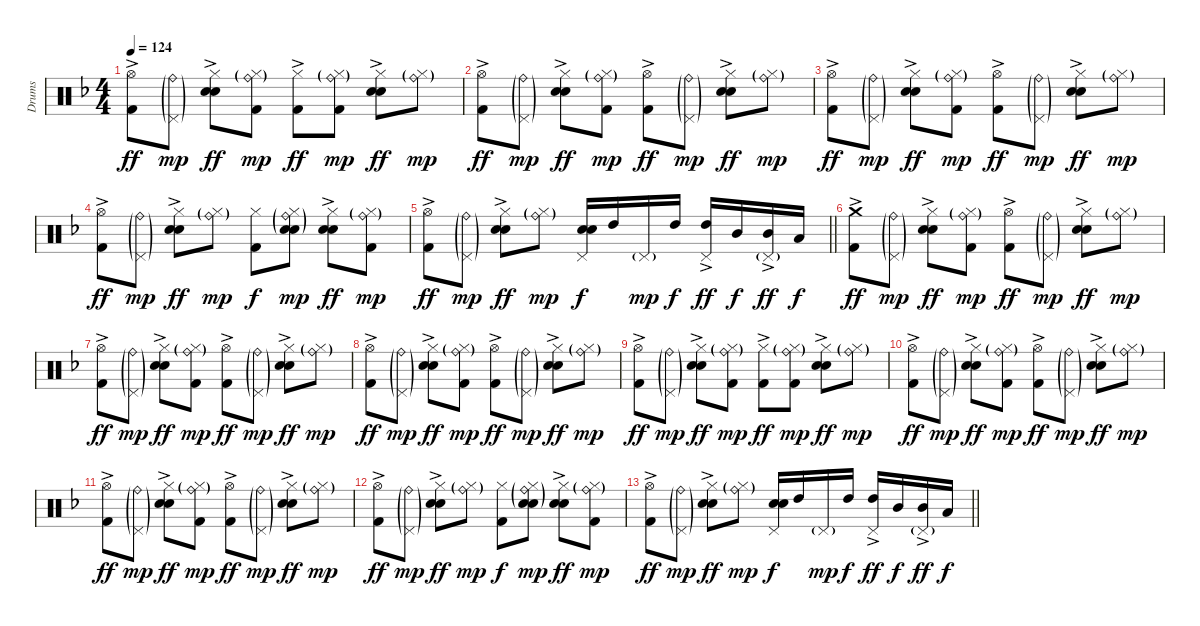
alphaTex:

\track ("Drums" "Drums") {instrument percussion}
\staff {score}
\articulation defaults
\ts (4 4)
\tempo 124
\clef neutral
\ks f
("Hi-Hat (open)" "Kick (hit) 2"{ac}).8{dy ff} ("Ride (bell)"{g} "Pedal Hi-Hat (hit)"{g}).8{dy mp} ("Hi-Hat (closed)" "Electric Snare (hit)"{ac} "Snare (hit) 2").8{dy ff} ("Hi-Hat (closed)"{g} "Ride (bell)"{g} "Kick (hit) 2").8{dy mp} ("Hi-Hat (closed)" "Kick (hit) 2"{ac}).8{dy ff} ("Hi-Hat (closed)"{g} "Ride (bell)"{g} "Kick (hit) 2").8{dy mp} ("Hi-Hat (closed)" "Electric Snare (hit)"{ac} "Snare (hit) 2").8{dy ff} ("Hi-Hat (closed)"{g} "Ride (bell)"{g}).8{dy mp} |
("Hi-Hat (open)" "Kick (hit) 2"{ac}).8{dy ff} ("Ride (bell)"{g} "Pedal Hi-Hat (hit)"{g}).8{dy mp} ("Hi-Hat (closed)" "Electric Snare (hit)"{ac} "Snare (hit) 2").8{dy ff} ("Hi-Hat (closed)"{g} "Ride (bell)"{g} "Kick (hit) 2").8{dy mp} ("Hi-Hat (open)" "Kick (hit) 2"{ac}).8{dy ff} ("Ride (bell)"{g} "Pedal Hi-Hat (hit)"{g}).8{dy mp} ("Hi-Hat (closed)" "Electric Snare (hit)"{ac} "Snare (hit) 2").8{dy ff} ("Hi-Hat (closed)"{g} "Ride (bell)"{g}).8{dy mp} |
("Hi-Hat (open)" "Kick (hit) 2"{ac}).8{dy ff} ("Ride (bell)"{g} "Pedal Hi-Hat (hit)"{g}).8{dy mp} ("Hi-Hat (closed)" "Electric Snare (hit)"{ac} "Snare (hit) 2").8{dy ff} ("Hi-Hat (closed)"{g} "Ride (bell)"{g} "Kick (hit) 2").8{dy mp} ("Hi-Hat (open)" "Kick (hit) 2"{ac}).8{dy ff} ("Ride (bell)"{g} "Pedal Hi-Hat (hit)"{g}).8{dy mp} ("Hi-Hat (closed)" "Electric Snare (hit)"{ac} "Snare (hit) 2").8{dy ff} ("Hi-Hat (closed)"{g} "Ride (bell)"{g}).8{dy mp} |
("Hi-Hat (open)" "Kick (hit) 2"{ac}).8{dy ff} ("Ride (bell)"{g} "Pedal Hi-Hat (hit)"{g}).8{dy mp} ("Hi-Hat (closed)" "Electric Snare (hit)"{ac} "Snare (hit) 2").8{dy ff} ("Hi-Hat (closed)"{g} "Ride (bell)"{g}).8{dy mp} ("Hi-Hat (closed)" "Kick (hit) 2").8{dy f} ("Hi-Hat (closed)"{g} "Ride (bell)"{g} "Electric Snare (hit)"{g} "Snare (hit) 2").8{dy mp} ("Hi-Hat (closed)" "Electric Snare (hit)"{ac} "Snare (hit) 2").8{dy ff} ("Hi-Hat (closed)"{g} "Ride (bell)"{g} "Kick (hit) 2").8{dy mp} |
\barLineRight lightlight
("Hi-Hat (open)" "Kick (hit) 2"{ac}).8{dy ff} ("Ride (bell)"{g} "Pedal Hi-Hat (hit)"{g}).8{dy mp} ("Hi-Hat (closed)" "Electric Snare (hit)"{ac} "Snare (hit) 2").8{dy ff} ("Hi-Hat (closed)"{g} "Ride (bell)"{g}).8{dy mp} ("Pedal Hi-Hat (hit)" "Electric Snare (hit)" "Snare (hit) 2").16{dy f} "High Tom (hit)".16 "Pedal Hi-Hat (hit)"{g}.16{dy mp} "High Tom (hit)".16{dy f} ("Pedal Hi-Hat (hit)" "High Tom (hit)"{ac}).16{dy ff} "Mid Tom (hit)".16{dy f} ("Pedal Hi-Hat (hit)"{g} "Mid Tom (hit)"{ac}).16{dy ff} "Low Tom (hit)".16{dy f} |
("Crash medium (hit)" "Kick (hit) 2"{ac}).8{dy ff} ("Ride (bell)"{g} "Pedal Hi-Hat (hit)"{g}).8{dy mp} ("Hi-Hat (closed)" "Electric Snare (hit)"{ac} "Snare (hit) 2").8{dy ff} ("Hi-Hat (closed)"{g} "Ride (bell)"{g} "Kick (hit) 2").8{dy mp} ("Hi-Hat (open)" "Kick (hit) 2"{ac}).8{dy ff} ("Ride (bell)"{g} "Pedal Hi-Hat (hit)"{g}).8{dy mp} ("Hi-Hat (closed)" "Electric Snare (hit)"{ac} "Snare (hit) 2").8{dy ff} ("Hi-Hat (closed)"{g} "Ride (bell)"{g}).8{dy mp} |
("Hi-Hat (open)" "Kick (hit) 2"{ac}).8{dy ff} ("Ride (bell)"{g} "Pedal Hi-Hat (hit)"{g}).8{dy mp} ("Hi-Hat (closed)" "Electric Snare (hit)"{ac} "Snare (hit) 2").8{dy ff} ("Hi-Hat (closed)"{g} "Ride (bell)"{g} "Kick (hit) 2").8{dy mp} ("Hi-Hat (open)" "Kick (hit) 2"{ac}).8{dy ff} ("Ride (bell)"{g} "Pedal Hi-Hat (hit)"{g}).8{dy mp} ("Hi-Hat (closed)" "Electric Snare (hit)"{ac} "Snare (hit) 2").8{dy ff} ("Hi-Hat (closed)"{g} "Ride (bell)"{g}).8{dy mp} |
("Hi-Hat (open)" "Kick (hit) 2"{ac}).8{dy ff} ("Ride (bell)"{g} "Pedal Hi-Hat (hit)"{g}).8{dy mp} ("Hi-Hat (closed)" "Electric Snare (hit)"{ac} "Snare (hit) 2").8{dy ff} ("Hi-Hat (closed)"{g} "Ride (bell)"{g} "Kick (hit) 2").8{dy mp} ("Hi-Hat (open)" "Kick (hit) 2"{ac}).8{dy ff} ("Ride (bell)"{g} "Pedal Hi-Hat (hit)"{g}).8{dy mp} ("Hi-Hat (closed)" "Electric Snare (hit)"{ac} "Snare (hit) 2").8{dy ff} ("Hi-Hat (closed)"{g} "Ride (bell)"{g}).8{dy mp} |
("Hi-Hat (open)" "Kick (hit) 2"{ac}).8{dy ff} ("Ride (bell)"{g} "Pedal Hi-Hat (hit)"{g}).8{dy mp} ("Hi-Hat (closed)" "Electric Snare (hit)"{ac} "Snare (hit) 2").8{dy ff} ("Hi-Hat (closed)"{g} "Ride (bell)"{g} "Kick (hit) 2").8{dy mp} ("Hi-Hat (closed)" "Kick (hit) 2"{ac}).8{dy ff} ("Hi-Hat (closed)"{g} "Ride (bell)"{g} "Kick (hit) 2").8{dy mp} ("Hi-Hat (closed)" "Electric Snare (hit)"{ac} "Snare (hit) 2").8{dy ff} ("Hi-Hat (closed)"{g} "Ride (bell)"{g}).8{dy mp} |
("Hi-Hat (open)" "Kick (hit) 2"{ac}).8{dy ff} ("Ride (bell)"{g} "Pedal Hi-Hat (hit)"{g}).8{dy mp} ("Hi-Hat (closed)" "Electric Snare (hit)"{ac} "Snare (hit) 2").8{dy ff} ("Hi-Hat (closed)"{g} "Ride (bell)"{g} "Kick (hit) 2").8{dy mp} ("Hi-Hat (open)" "Kick (hit) 2"{ac}).8{dy ff} ("Ride (bell)"{g} "Pedal Hi-Hat (hit)"{g}).8{dy mp} ("Hi-Hat (closed)" "Electric Snare (hit)"{ac} "Snare (hit) 2").8{dy ff} ("Hi-Hat (closed)"{g} "Ride (bell)"{g}).8{dy mp} |
("Hi-Hat (open)" "Kick (hit) 2"{ac}).8{dy ff} ("Ride (bell)"{g} "Pedal Hi-Hat (hit)"{g}).8{dy mp} ("Hi-Hat (closed)" "Electric Snare (hit)"{ac} "Snare (hit) 2").8{dy ff} ("Hi-Hat (closed)"{g} "Ride (bell)"{g} "Kick (hit) 2").8{dy mp} ("Hi-Hat (open)" "Kick (hit) 2"{ac}).8{dy ff} ("Ride (bell)"{g} "Pedal Hi-Hat (hit)"{g}).8{dy mp} ("Hi-Hat (closed)" "Electric Snare (hit)"{ac} "Snare (hit) 2").8{dy ff} ("Hi-Hat (closed)"{g} "Ride (bell)"{g}).8{dy mp} |
("Hi-Hat (open)" "Kick (hit) 2"{ac}).8{dy ff} ("Ride (bell)"{g} "Pedal Hi-Hat (hit)"{g}).8{dy mp} ("Hi-Hat (closed)" "Electric Snare (hit)"{ac} "Snare (hit) 2").8{dy ff} ("Hi-Hat (closed)"{g} "Ride (bell)"{g}).8{dy mp} ("Hi-Hat (closed)" "Kick (hit) 2").8{dy f} ("Hi-Hat (closed)"{g} "Ride (bell)"{g} "Electric Snare (hit)"{g} "Snare (hit) 2").8{dy mp} ("Hi-Hat (closed)" "Electric Snare (hit)"{ac} "Snare (hit) 2").8{dy ff} ("Hi-Hat (closed)"{g} "Ride (bell)"{g} "Kick (hit) 2").8{dy mp} |
\barLineRight lightlight
("Hi-Hat (open)" "Kick (hit) 2"{ac}).8{dy ff} ("Ride (bell)"{g} "Pedal Hi-Hat (hit)"{g}).8{dy mp} ("Hi-Hat (closed)" "Electric Snare (hit)"{ac} "Snare (hit) 2").8{dy ff} ("Hi-Hat (closed)"{g} "Ride (bell)"{g}).8{dy mp} ("Pedal Hi-Hat (hit)" "Electric Snare (hit)" "Snare (hit) 2").16{dy f} "High Tom (hit)".16 "Pedal Hi-Hat (hit)"{g}.16{dy mp} "High Tom (hit)".16{dy f} ("Pedal Hi-Hat (hit)" "High Tom (hit)"{ac}).16{dy ff} "Mid Tom (hit)".16{dy f} ("Pedal Hi-Hat (hit)"{g} "Mid Tom (hit)"{ac}).16{dy ff} "Low Tom (hit)".16{dy f}
